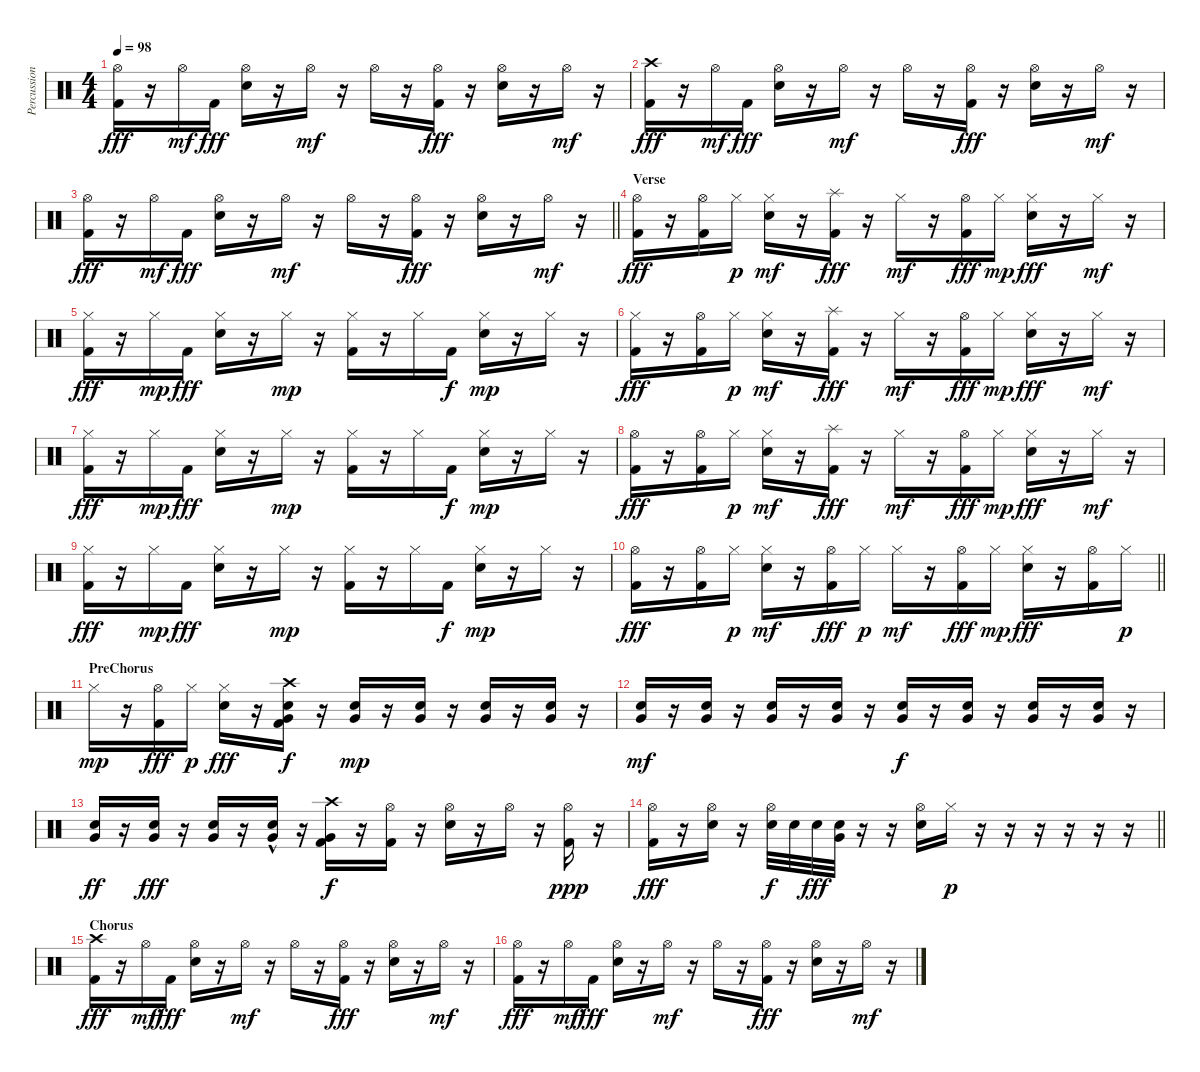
\track ("Percussion" "Percussion") {instrument percussion}
\staff {score}
\articulation defaults
\ts (4 4)
\tempo 98
\clef neutral
\ks c
("Hi-Hat (open)" "Kick (hit) 2").16{dy fff} r.16 "Hi-Hat (open)".16{dy mf} "Kick (hit) 2".16{dy fff} ("Hi-Hat (open)" "Electric Snare (hit)").16 r.16 "Hi-Hat (open)".16{dy mf} r.16 "Hi-Hat (open)".16 r.16 ("Hi-Hat (open)" "Kick (hit) 2").16{dy fff} r.16 ("Hi-Hat (open)" "Electric Snare (hit)").16 r.16 "Hi-Hat (open)".16{dy mf} r.16 |
("Crash high (hit)" "Kick (hit) 2").16{dy fff} r.16 "Hi-Hat (open)".16{dy mf} "Kick (hit) 2".16{dy fff} ("Hi-Hat (open)" "Electric Snare (hit)").16 r.16 "Hi-Hat (open)".16{dy mf} r.16 "Hi-Hat (open)".16 r.16 ("Hi-Hat (open)" "Kick (hit) 2").16{dy fff} r.16 ("Hi-Hat (open)" "Electric Snare (hit)").16 r.16 "Hi-Hat (open)".16{dy mf} r.16 |
\barLineRight lightlight
("Hi-Hat (open)" "Kick (hit) 2").16{dy fff} r.16 "Hi-Hat (open)".16{dy mf} "Kick (hit) 2".16{dy fff} ("Hi-Hat (open)" "Electric Snare (hit)").16 r.16 "Hi-Hat (open)".16{dy mf} r.16 "Hi-Hat (open)".16 r.16 ("Hi-Hat (open)" "Kick (hit) 2").16{dy fff} r.16 ("Hi-Hat (open)" "Electric Snare (hit)").16 r.16 "Hi-Hat (open)".16{dy mf} r.16 |
\section ("" "Verse")
("Hi-Hat (open)" "Kick (hit) 2").16{dy fff} r.16 ("Hi-Hat (open)" "Kick (hit) 2").16 "Hi-Hat (closed)".16{dy p} ("Hi-Hat (closed)" "Electric Snare (hit)").16{dy mf} r.16 ("Splash (hit)" "Kick (hit) 2").16{dy fff} r.16 "Hi-Hat (closed)".16{dy mf} r.16 ("Hi-Hat (open)" "Kick (hit) 2").16{dy fff} "Hi-Hat (closed)".16{dy mp} ("Hi-Hat (closed)" "Electric Snare (hit)").16{dy fff} r.16 "Hi-Hat (closed)".16{dy mf} r.16 |
("Hi-Hat (closed)" "Kick (hit) 2").16{dy fff} r.16 "Hi-Hat (closed)".16{dy mp} "Kick (hit) 2".16{dy fff} ("Hi-Hat (closed)" "Electric Snare (hit)").16 r.16 "Hi-Hat (closed)".16{dy mp} r.16 ("Hi-Hat (closed)" "Kick (hit) 2").16 r.16 "Hi-Hat (closed)".16 "Kick (hit) 2".16{dy f} ("Hi-Hat (closed)" "Electric Snare (hit)").16{dy mp} r.16 "Hi-Hat (closed)".16 r.16 |
("Hi-Hat (closed)" "Kick (hit) 2").16{dy fff} r.16 ("Hi-Hat (open)" "Kick (hit) 2").16 "Hi-Hat (closed)".16{dy p} ("Hi-Hat (closed)" "Electric Snare (hit)").16{dy mf} r.16 ("Splash (hit)" "Kick (hit) 2").16{dy fff} r.16 "Hi-Hat (closed)".16{dy mf} r.16 ("Hi-Hat (open)" "Kick (hit) 2").16{dy fff} "Hi-Hat (closed)".16{dy mp} ("Hi-Hat (closed)" "Electric Snare (hit)").16{dy fff} r.16 "Hi-Hat (closed)".16{dy mf} r.16 |
("Hi-Hat (closed)" "Kick (hit) 2").16{dy fff} r.16 "Hi-Hat (closed)".16{dy mp} "Kick (hit) 2".16{dy fff} ("Hi-Hat (closed)" "Electric Snare (hit)").16 r.16 "Hi-Hat (closed)".16{dy mp} r.16 ("Hi-Hat (closed)" "Kick (hit) 2").16 r.16 "Hi-Hat (closed)".16 "Kick (hit) 2".16{dy f} ("Hi-Hat (closed)" "Electric Snare (hit)").16{dy mp} r.16 "Hi-Hat (closed)".16 r.16 |
("Hi-Hat (open)" "Kick (hit) 2").16{dy fff} r.16 ("Hi-Hat (open)" "Kick (hit) 2").16 "Hi-Hat (closed)".16{dy p} ("Hi-Hat (closed)" "Electric Snare (hit)").16{dy mf} r.16 ("Splash (hit)" "Kick (hit) 2").16{dy fff} r.16 "Hi-Hat (closed)".16{dy mf} r.16 ("Hi-Hat (open)" "Kick (hit) 2").16{dy fff} "Hi-Hat (closed)".16{dy mp} ("Hi-Hat (closed)" "Electric Snare (hit)").16{dy fff} r.16 "Hi-Hat (closed)".16{dy mf} r.16 |
("Hi-Hat (closed)" "Kick (hit) 2").16{dy fff} r.16 "Hi-Hat (closed)".16{dy mp} "Kick (hit) 2".16{dy fff} ("Hi-Hat (closed)" "Electric Snare (hit)").16 r.16 "Hi-Hat (closed)".16{dy mp} r.16 ("Hi-Hat (closed)" "Kick (hit) 2").16 r.16 "Hi-Hat (closed)".16 "Kick (hit) 2".16{dy f} ("Hi-Hat (closed)" "Electric Snare (hit)").16{dy mp} r.16 "Hi-Hat (closed)".16 r.16 |
\barLineRight lightlight
("Hi-Hat (open)" "Kick (hit) 2").16{dy fff} r.16 ("Hi-Hat (open)" "Kick (hit) 2").16 "Hi-Hat (closed)".16{dy p} ("Hi-Hat (closed)" "Electric Snare (hit)").16{dy mf} r.16 ("Hi-Hat (open)" "Kick (hit) 2").16{dy fff} "Hi-Hat (closed)".16{dy p} "Hi-Hat (closed)".16{dy mf} r.16 ("Hi-Hat (open)" "Kick (hit) 2").16{dy fff} "Hi-Hat (closed)".16{dy mp} ("Hi-Hat (closed)" "Electric Snare (hit)").16{dy fff} r.16 ("Hi-Hat (open)" "Kick (hit) 2").16 "Hi-Hat (closed)".16{dy p} |
\section ("" "PreChorus")
"Hi-Hat (closed)".16{dy mp} r.16 ("Hi-Hat (open)" "Kick (hit) 2").16{dy fff} "Hi-Hat (closed)".16{dy p} ("Hi-Hat (closed)" "Electric Snare (hit)").16{dy fff} r.16 ("Crash high (hit)" "Kick (hit) 2" "Electric Snare (hit)" "Very Low Tom (hit)").16{dy f} r.16 ("Electric Snare (hit)" "Very Low Tom (hit)").16{dy mp} r.16 ("Electric Snare (hit)" "Very Low Tom (hit)").16 r.16 ("Electric Snare (hit)" "Very Low Tom (hit)").16 r.16 ("Electric Snare (hit)" "Very Low Tom (hit)").16 r.16 |
("Electric Snare (hit)" "Very Low Tom (hit)").16{dy mf} r.16 ("Electric Snare (hit)" "Very Low Tom (hit)").16 r.16 ("Electric Snare (hit)" "Very Low Tom (hit)").16 r.16 ("Electric Snare (hit)" "Very Low Tom (hit)").16 r.16 ("Electric Snare (hit)" "Very Low Tom (hit)").16{dy f} r.16 ("Electric Snare (hit)" "Very Low Tom (hit)").16 r.16 ("Electric Snare (hit)" "Very Low Tom (hit)").16 r.16 ("Electric Snare (hit)" "Very Low Tom (hit)").16 r.16 |
("Electric Snare (hit)" "Very Low Tom (hit)").16{dy ff} r.16 ("Electric Snare (hit)" "Very Low Tom (hit)").16{dy fff} r.16 ("Electric Snare (hit)" "Very Low Tom (hit)").16 r.16 ("Electric Snare (hit)"{hac} "Very Low Tom (hit)"{hac}).16 r.16 ("Kick (hit) 2" "Very Low Tom (hit)" "Crash high (hit)").16{dy f} r.16 ("Hi-Hat (open)" "Kick (hit) 2").16 r.16 ("Hi-Hat (open)" "Electric Snare (hit)").16 r.16 "Hi-Hat (open)".16 r.16 ("Hi-Hat (open)" "Kick (hit) 2").16{dy ppp} r.16 |
\barLineRight lightlight
("Hi-Hat (open)" "Kick (hit) 2").16{dy fff} r.16 ("Hi-Hat (open)" "Electric Snare (hit)").16 r.16 ("Hi-Hat (open)" "Electric Snare (hit)").32{dy f} "Electric Snare (hit)".32 "Electric Snare (hit)".32{dy fff} ("Electric Snare (hit)" "Very Low Tom (hit)").32 r.16 r.16 ("Hi-Hat (open)" "Electric Snare (hit)").16 "Hi-Hat (closed)".16{dy p} r.16 r.16 r.16 r.16 r.16 r.16 |
\section ("" "Chorus")
("Crash high (hit)" "Kick (hit) 2").16{dy fff} r.16 "Hi-Hat (open)".16{dy mf} "Kick (hit) 2".16{dy fff} ("Hi-Hat (open)" "Electric Snare (hit)").16 r.16 "Hi-Hat (open)".16{dy mf} r.16 "Hi-Hat (open)".16 r.16 ("Hi-Hat (open)" "Kick (hit) 2").16{dy fff} r.16 ("Hi-Hat (open)" "Electric Snare (hit)").16 r.16 "Hi-Hat (open)".16{dy mf} r.16 |
("Hi-Hat (open)" "Kick (hit) 2").16{dy fff} r.16 "Hi-Hat (open)".16{dy mf} "Kick (hit) 2".16{dy fff} ("Hi-Hat (open)" "Electric Snare (hit)").16 r.16 "Hi-Hat (open)".16{dy mf} r.16 "Hi-Hat (open)".16 r.16 ("Hi-Hat (open)" "Kick (hit) 2").16{dy fff} r.16 ("Hi-Hat (open)" "Electric Snare (hit)").16 r.16 "Hi-Hat (open)".16{dy mf} r.16
